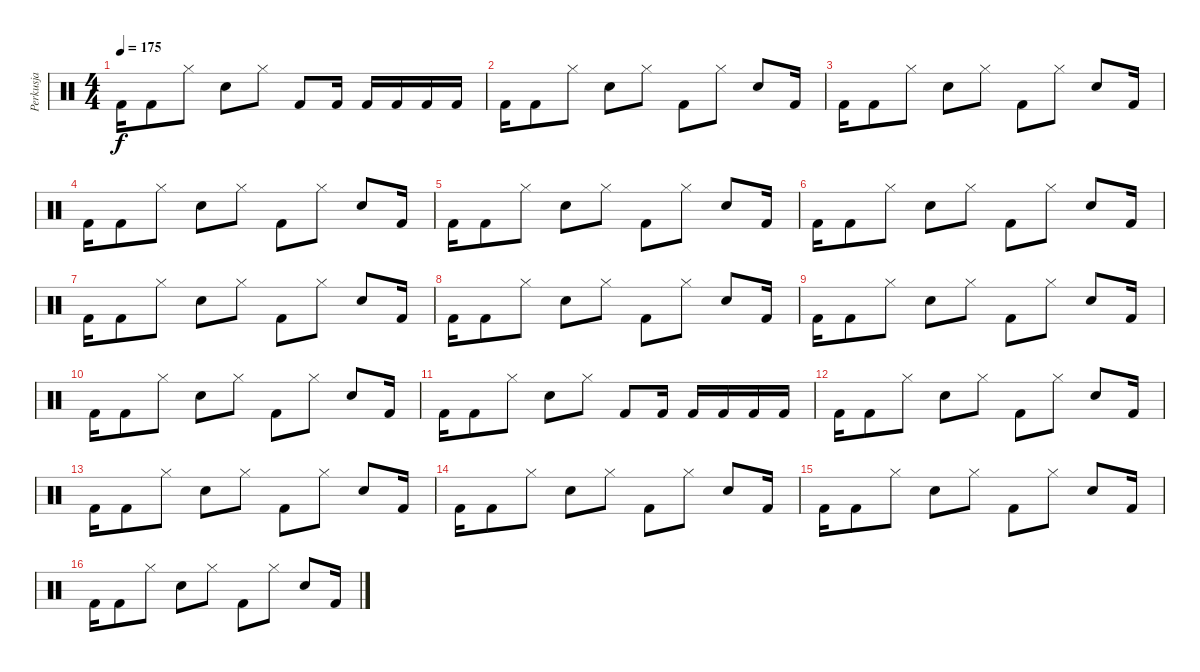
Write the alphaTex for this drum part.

\track ("Perkusja" "Perkusja") {instrument percussion}
\staff {score}
\articulation defaults
\ts (4 4)
\tempo 175
\clef neutral
\ks c "Kick (hit) 2".16{dy f} "Kick (hit) 2".8 "Hi-Hat (closed)".8 "Snare (hit) 2".8 "Hi-Hat (closed)".8 "Kick (hit) 2".8 "Kick (hit) 2".16 "Kick (hit) 2".16 "Kick (hit) 2".16 "Kick (hit) 2".16 "Kick (hit) 2".16
|
"Kick (hit) 2".16 "Kick (hit) 2".8 "Hi-Hat (closed)".8 "Snare (hit) 2".8 "Hi-Hat (closed)".8 "Kick (hit) 2".8 "Hi-Hat (closed)".8 "Snare (hit) 2".8 "Kick (hit) 2".16 |
"Kick (hit) 2".16 "Kick (hit) 2".8 "Hi-Hat (closed)".8 "Snare (hit) 2".8 "Hi-Hat (closed)".8 "Kick (hit) 2".8 "Hi-Hat (closed)".8 "Snare (hit) 2".8 "Kick (hit) 2".16 |
"Kick (hit) 2".16 "Kick (hit) 2".8 "Hi-Hat (closed)".8 "Snare (hit) 2".8 "Hi-Hat (closed)".8 "Kick (hit) 2".8 "Hi-Hat (closed)".8 "Snare (hit) 2".8 "Kick (hit) 2".16 |
"Kick (hit) 2".16 "Kick (hit) 2".8 "Hi-Hat (closed)".8 "Snare (hit) 2".8 "Hi-Hat (closed)".8 "Kick (hit) 2".8 "Hi-Hat (closed)".8 "Snare (hit) 2".8 "Kick (hit) 2".16 |
"Kick (hit) 2".16 "Kick (hit) 2".8 "Hi-Hat (closed)".8 "Snare (hit) 2".8 "Hi-Hat (closed)".8 "Kick (hit) 2".8 "Hi-Hat (closed)".8 "Snare (hit) 2".8 "Kick (hit) 2".16 |
"Kick (hit) 2".16 "Kick (hit) 2".8 "Hi-Hat (closed)".8 "Snare (hit) 2".8 "Hi-Hat (closed)".8 "Kick (hit) 2".8 "Hi-Hat (closed)".8 "Snare (hit) 2".8 "Kick (hit) 2".16 |
"Kick (hit) 2".16 "Kick (hit) 2".8 "Hi-Hat (closed)".8 "Snare (hit) 2".8 "Hi-Hat (closed)".8 "Kick (hit) 2".8 "Hi-Hat (closed)".8 "Snare (hit) 2".8 "Kick (hit) 2".16 |
"Kick (hit) 2".16 "Kick (hit) 2".8 "Hi-Hat (closed)".8 "Snare (hit) 2".8 "Hi-Hat (closed)".8 "Kick (hit) 2".8 "Hi-Hat (closed)".8 "Snare (hit) 2".8 "Kick (hit) 2".16 |
"Kick (hit) 2".16 "Kick (hit) 2".8 "Hi-Hat (closed)".8 "Snare (hit) 2".8 "Hi-Hat (closed)".8 "Kick (hit) 2".8 "Hi-Hat (closed)".8 "Snare (hit) 2".8 "Kick (hit) 2".16 |
"Kick (hit) 2".16 "Kick (hit) 2".8 "Hi-Hat (closed)".8 "Snare (hit) 2".8 "Hi-Hat (closed)".8 "Kick (hit) 2".8 "Kick (hit) 2".16 "Kick (hit) 2".16 "Kick (hit) 2".16 "Kick (hit) 2".16 "Kick (hit) 2".16 |
"Kick (hit) 2".16 "Kick (hit) 2".8 "Hi-Hat (closed)".8 "Snare (hit) 2".8 "Hi-Hat (closed)".8 "Kick (hit) 2".8 "Hi-Hat (closed)".8 "Snare (hit) 2".8 "Kick (hit) 2".16 |
"Kick (hit) 2".16 "Kick (hit) 2".8 "Hi-Hat (closed)".8 "Snare (hit) 2".8 "Hi-Hat (closed)".8 "Kick (hit) 2".8 "Hi-Hat (closed)".8 "Snare (hit) 2".8 "Kick (hit) 2".16 |
"Kick (hit) 2".16 "Kick (hit) 2".8 "Hi-Hat (closed)".8 "Snare (hit) 2".8 "Hi-Hat (closed)".8 "Kick (hit) 2".8 "Hi-Hat (closed)".8 "Snare (hit) 2".8 "Kick (hit) 2".16 |
"Kick (hit) 2".16 "Kick (hit) 2".8 "Hi-Hat (closed)".8 "Snare (hit) 2".8 "Hi-Hat (closed)".8 "Kick (hit) 2".8 "Hi-Hat (closed)".8 "Snare (hit) 2".8 "Kick (hit) 2".16 |
"Kick (hit) 2".16 "Kick (hit) 2".8 "Hi-Hat (closed)".8 "Snare (hit) 2".8 "Hi-Hat (closed)".8 "Kick (hit) 2".8 "Hi-Hat (closed)".8 "Snare (hit) 2".8 "Kick (hit) 2".16
